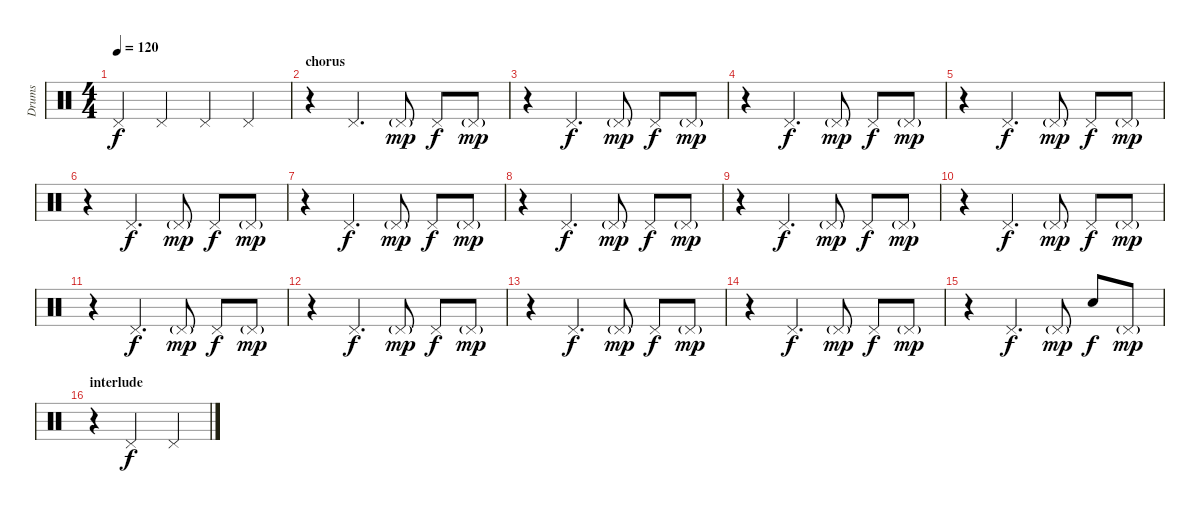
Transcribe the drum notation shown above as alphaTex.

\track ("Drums" "Drums") {instrument percussion}
\staff {score}
\articulation defaults
\ts (4 4)
\tempo 120
\clef neutral
\ks c "Pedal Hi-Hat (hit)".4{dy f} "Pedal Hi-Hat (hit)".4 "Pedal Hi-Hat (hit)".4 "Pedal Hi-Hat (hit)".4
|
\section ("" "chorus")
r.4 "Pedal Hi-Hat (hit)".4{d} "Pedal Hi-Hat (hit)"{g}.8{dy mp} "Pedal Hi-Hat (hit)".8{dy f} "Pedal Hi-Hat (hit)"{g}.8{dy mp} |
r.4 "Pedal Hi-Hat (hit)".4{d dy f} "Pedal Hi-Hat (hit)"{g}.8{dy mp} "Pedal Hi-Hat (hit)".8{dy f} "Pedal Hi-Hat (hit)"{g}.8{dy mp} |
r.4 "Pedal Hi-Hat (hit)".4{d dy f} "Pedal Hi-Hat (hit)"{g}.8{dy mp} "Pedal Hi-Hat (hit)".8{dy f} "Pedal Hi-Hat (hit)"{g}.8{dy mp} |
r.4 "Pedal Hi-Hat (hit)".4{d dy f} "Pedal Hi-Hat (hit)"{g}.8{dy mp} "Pedal Hi-Hat (hit)".8{dy f} "Pedal Hi-Hat (hit)"{g}.8{dy mp} |
r.4 "Pedal Hi-Hat (hit)".4{d dy f} "Pedal Hi-Hat (hit)"{g}.8{dy mp} "Pedal Hi-Hat (hit)".8{dy f} "Pedal Hi-Hat (hit)"{g}.8{dy mp} |
r.4 "Pedal Hi-Hat (hit)".4{d dy f} "Pedal Hi-Hat (hit)"{g}.8{dy mp} "Pedal Hi-Hat (hit)".8{dy f} "Pedal Hi-Hat (hit)"{g}.8{dy mp} |
r.4 "Pedal Hi-Hat (hit)".4{d dy f} "Pedal Hi-Hat (hit)"{g}.8{dy mp} "Pedal Hi-Hat (hit)".8{dy f} "Pedal Hi-Hat (hit)"{g}.8{dy mp} |
r.4 "Pedal Hi-Hat (hit)".4{d dy f} "Pedal Hi-Hat (hit)"{g}.8{dy mp} "Pedal Hi-Hat (hit)".8{dy f} "Pedal Hi-Hat (hit)"{g}.8{dy mp} |
r.4 "Pedal Hi-Hat (hit)".4{d dy f} "Pedal Hi-Hat (hit)"{g}.8{dy mp} "Pedal Hi-Hat (hit)".8{dy f} "Pedal Hi-Hat (hit)"{g}.8{dy mp} |
r.4 "Pedal Hi-Hat (hit)".4{d dy f} "Pedal Hi-Hat (hit)"{g}.8{dy mp} "Pedal Hi-Hat (hit)".8{dy f} "Pedal Hi-Hat (hit)"{g}.8{dy mp} |
r.4 "Pedal Hi-Hat (hit)".4{d dy f} "Pedal Hi-Hat (hit)"{g}.8{dy mp} "Pedal Hi-Hat (hit)".8{dy f} "Pedal Hi-Hat (hit)"{g}.8{dy mp} |
r.4 "Pedal Hi-Hat (hit)".4{d dy f} "Pedal Hi-Hat (hit)"{g}.8{dy mp} "Pedal Hi-Hat (hit)".8{dy f} "Pedal Hi-Hat (hit)"{g}.8{dy mp} |
r.4 "Pedal Hi-Hat (hit)".4{d dy f} "Pedal Hi-Hat (hit)"{g}.8{dy mp} "Pedal Hi-Hat (hit)".8{dy f} "Pedal Hi-Hat (hit)"{g}.8{dy mp} |
r.4 "Pedal Hi-Hat (hit)".4{d dy f} "Pedal Hi-Hat (hit)"{g}.8{dy mp} "Electric Snare (hit)".8{dy f} "Pedal Hi-Hat (hit)"{g}.8{dy mp} |
\section ("" "interlude")
r.4 "Pedal Hi-Hat (hit)".2{dy f} "Pedal Hi-Hat (hit)".4
